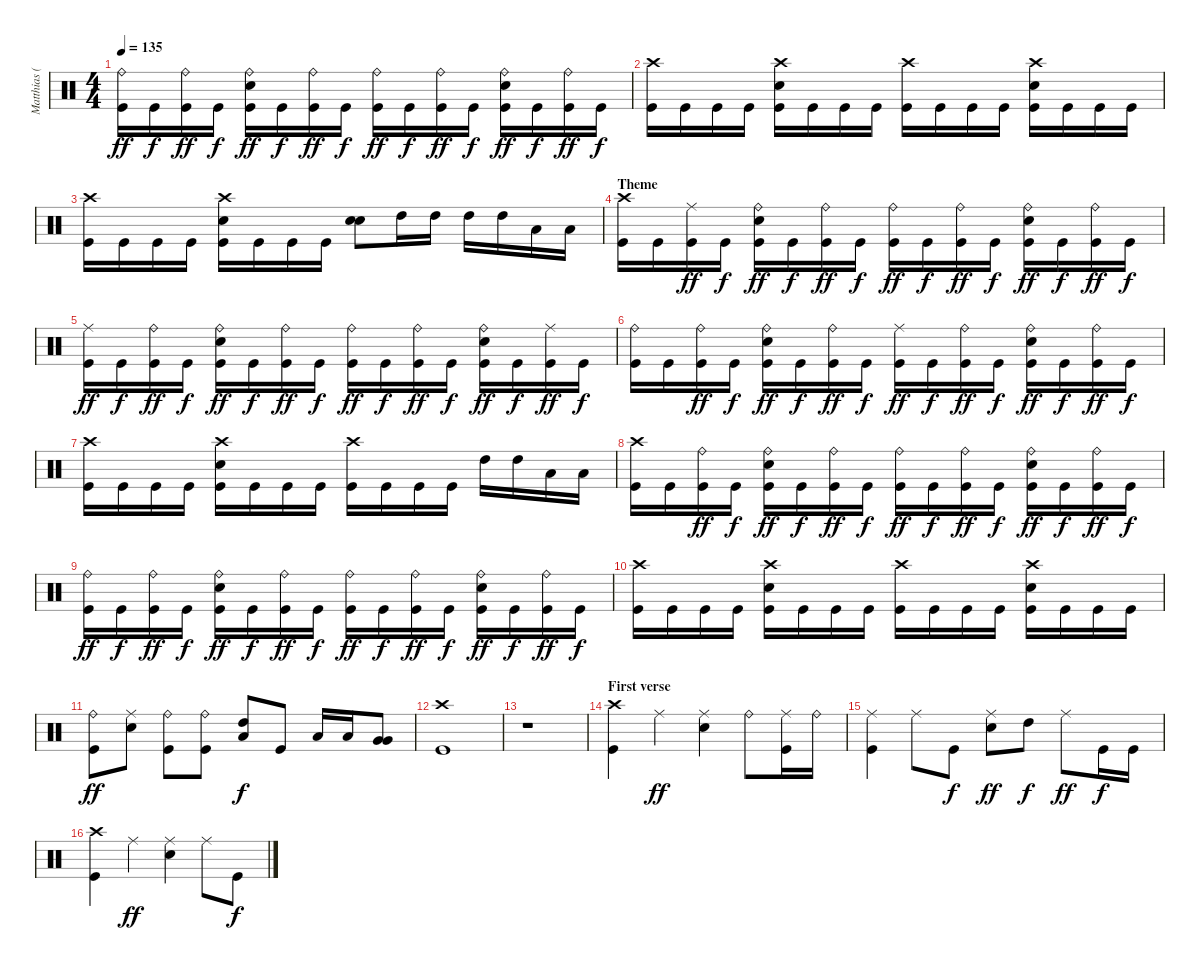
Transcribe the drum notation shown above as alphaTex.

\track ("Matthias (Drums)" "Matthias (") {instrument percussion}
\staff {score}
\articulation defaults
\ts (4 4)
\tempo 135
\clef neutral
\ks c
("Ride (bell)" "Kick (hit)").16{dy ff} "Kick (hit)".16{dy f} ("Ride (bell)" "Kick (hit)").16{dy ff} "Kick (hit)".16{dy f} ("Ride (bell)" "Electric Snare (hit)" "Kick (hit)").16{dy ff} "Kick (hit)".16{dy f} ("Ride (bell)" "Kick (hit)").16{dy ff} "Kick (hit)".16{dy f} ("Ride (bell)" "Kick (hit)").16{dy ff} "Kick (hit)".16{dy f} ("Ride (bell)" "Kick (hit)").16{dy ff} "Kick (hit)".16{dy f} ("Ride (bell)" "Electric Snare (hit)" "Kick (hit)").16{dy ff} "Kick (hit)".16{dy f} ("Ride (bell)" "Kick (hit)").16{dy ff} "Kick (hit)".16{dy f} |
("Crash high (hit)" "Kick (hit)").16 "Kick (hit)".16 "Kick (hit)".16 "Kick (hit)".16 ("Crash high (hit)" "Electric Snare (hit)" "Kick (hit)").16 "Kick (hit)".16 "Kick (hit)".16 "Kick (hit)".16 ("Crash high (hit)" "Kick (hit)").16 "Kick (hit)".16 "Kick (hit)".16 "Kick (hit)".16 ("Crash high (hit)" "Electric Snare (hit)" "Kick (hit)").16 "Kick (hit)".16 "Kick (hit)".16 "Kick (hit)".16 |
("Crash high (hit)" "Kick (hit)").16 "Kick (hit)".16 "Kick (hit)".16 "Kick (hit)".16 ("Crash high (hit)" "Electric Snare (hit)" "Kick (hit)").16 "Kick (hit)".16 "Kick (hit)".16 "Kick (hit)".16 ("Electric Snare (hit)" "Electric Snare (hit)").8{bu 120} "High Tom (hit)".16 "High Tom (hit)".16 "High Tom (hit)".16 "High Tom (hit)".16 "Low Tom (hit)".16 "Low Tom (hit)".16 |
\section ("" "Theme")
("Crash high (hit)" "Kick (hit)").16 "Kick (hit)".16 ("Ride (middle)" "Kick (hit)").16{dy ff} "Kick (hit)".16{dy f} ("Ride (bell)" "Electric Snare (hit)" "Kick (hit)").16{dy ff} "Kick (hit)".16{dy f} ("Ride (bell)" "Kick (hit)").16{dy ff} "Kick (hit)".16{dy f} ("Ride (bell)" "Kick (hit)").16{dy ff} "Kick (hit)".16{dy f} ("Ride (bell)" "Kick (hit)").16{dy ff} "Kick (hit)".16{dy f} ("Ride (bell)" "Electric Snare (hit)" "Kick (hit)").16{dy ff} "Kick (hit)".16{dy f} ("Ride (bell)" "Kick (hit)").16{dy ff} "Kick (hit)".16{dy f} |
("Ride (middle)" "Kick (hit)").16{dy ff} "Kick (hit)".16{dy f} ("Ride (bell)" "Kick (hit)").16{dy ff} "Kick (hit)".16{dy f} ("Ride (bell)" "Electric Snare (hit)" "Kick (hit)").16{dy ff} "Kick (hit)".16{dy f} ("Ride (bell)" "Kick (hit)").16{dy ff} "Kick (hit)".16{dy f} ("Ride (bell)" "Kick (hit)").16{dy ff} "Kick (hit)".16{dy f} ("Ride (bell)" "Kick (hit)").16{dy ff} "Kick (hit)".16{dy f} ("Ride (bell)" "Electric Snare (hit)" "Kick (hit)").16{dy ff} "Kick (hit)".16{dy f} ("Ride (middle)" "Kick (hit)").16{dy ff} "Kick (hit)".16{dy f} |
("Ride (bell)" "Kick (hit)").16 "Kick (hit)".16 ("Ride (bell)" "Kick (hit)").16{dy ff} "Kick (hit)".16{dy f} ("Ride (bell)" "Electric Snare (hit)" "Kick (hit)").16{dy ff} "Kick (hit)".16{dy f} ("Ride (bell)" "Kick (hit)").16{dy ff} "Kick (hit)".16{dy f} ("Ride (middle)" "Kick (hit)").16{dy ff} "Kick (hit)".16{dy f} ("Ride (bell)" "Kick (hit)").16{dy ff} "Kick (hit)".16{dy f} ("Ride (bell)" "Electric Snare (hit)" "Kick (hit)").16{dy ff} "Kick (hit)".16{dy f} ("Ride (bell)" "Kick (hit)").16{dy ff} "Kick (hit)".16{dy f} |
("Crash high (hit)" "Kick (hit)").16 "Kick (hit)".16 "Kick (hit)".16 "Kick (hit)".16 ("Crash high (hit)" "Electric Snare (hit)" "Kick (hit)").16 "Kick (hit)".16 "Kick (hit)".16 "Kick (hit)".16 ("Crash high (hit)" "Kick (hit)").16 "Kick (hit)".16 "Kick (hit)".16 "Kick (hit)".16 "High Tom (hit)".16 "High Tom (hit)".16 "Low Tom (hit)".16 "Low Tom (hit)".16 |
("Crash high (hit)" "Kick (hit)").16 "Kick (hit)".16 ("Ride (bell)" "Kick (hit)").16{dy ff} "Kick (hit)".16{dy f} ("Ride (bell)" "Electric Snare (hit)" "Kick (hit)").16{dy ff} "Kick (hit)".16{dy f} ("Ride (bell)" "Kick (hit)").16{dy ff} "Kick (hit)".16{dy f} ("Ride (bell)" "Kick (hit)").16{dy ff} "Kick (hit)".16{dy f} ("Ride (bell)" "Kick (hit)").16{dy ff} "Kick (hit)".16{dy f} ("Ride (bell)" "Electric Snare (hit)" "Kick (hit)").16{dy ff} "Kick (hit)".16{dy f} ("Ride (bell)" "Kick (hit)").16{dy ff} "Kick (hit)".16{dy f} |
("Ride (bell)" "Kick (hit)").16{dy ff} "Kick (hit)".16{dy f} ("Ride (bell)" "Kick (hit)").16{dy ff} "Kick (hit)".16{dy f} ("Ride (bell)" "Electric Snare (hit)" "Kick (hit)").16{dy ff} "Kick (hit)".16{dy f} ("Ride (bell)" "Kick (hit)").16{dy ff} "Kick (hit)".16{dy f} ("Ride (bell)" "Kick (hit)").16{dy ff} "Kick (hit)".16{dy f} ("Ride (bell)" "Kick (hit)").16{dy ff} "Kick (hit)".16{dy f} ("Ride (bell)" "Electric Snare (hit)" "Kick (hit)").16{dy ff} "Kick (hit)".16{dy f} ("Ride (bell)" "Kick (hit)").16{dy ff} "Kick (hit)".16{dy f} |
("Crash high (hit)" "Kick (hit)").16 "Kick (hit)".16 "Kick (hit)".16 "Kick (hit)".16 ("Crash high (hit)" "Electric Snare (hit)" "Kick (hit)").16 "Kick (hit)".16 "Kick (hit)".16 "Kick (hit)".16 ("Crash high (hit)" "Kick (hit)").16 "Kick (hit)".16 "Kick (hit)".16 "Kick (hit)".16 ("Crash high (hit)" "Electric Snare (hit)" "Kick (hit)").16 "Kick (hit)".16 "Kick (hit)".16 "Kick (hit)".16 |
("Ride (bell)" "Kick (hit)").8{dy ff} ("Ride (middle)" "Electric Snare (hit)").8 ("Ride (bell)" "Kick (hit)").8 ("Ride (bell)" "Kick (hit)").8 ("High Tom (hit)" "Low Tom (hit)").8{bu 120 dy f} "Kick (hit)".8 "Low Tom (hit)".16 "Low Tom (hit)".16 ("Very Low Tom (hit)" "Very Low Tom (hit)").8{bu 120} |
("Crash high (hit)" "Kick (hit)").1 |
r.1 |
\section ("" "First verse")
("Crash high (hit)" "Kick (hit)").4 "Ride (middle)".4{dy ff} ("Ride (middle)" "Electric Snare (hit)").4 "Ride (bell)".8 ("Ride (middle)" "Kick (hit)").16 "Ride (bell)".16 |
("Ride (middle)" "Kick (hit)").4 "Ride (middle)".8 "Kick (hit)".8{dy f} ("Ride (middle)" "Electric Snare (hit)").8{dy ff} "High Tom (hit)".8{dy f} "Ride (middle)".8{dy ff} "Kick (hit)".16{dy f} "Kick (hit)".16 |
("Crash high (hit)" "Kick (hit)").4 "Ride (middle)".4{dy ff} ("Ride (middle)" "Electric Snare (hit)").4 "Ride (middle)".8 "Kick (hit)".8{dy f}
